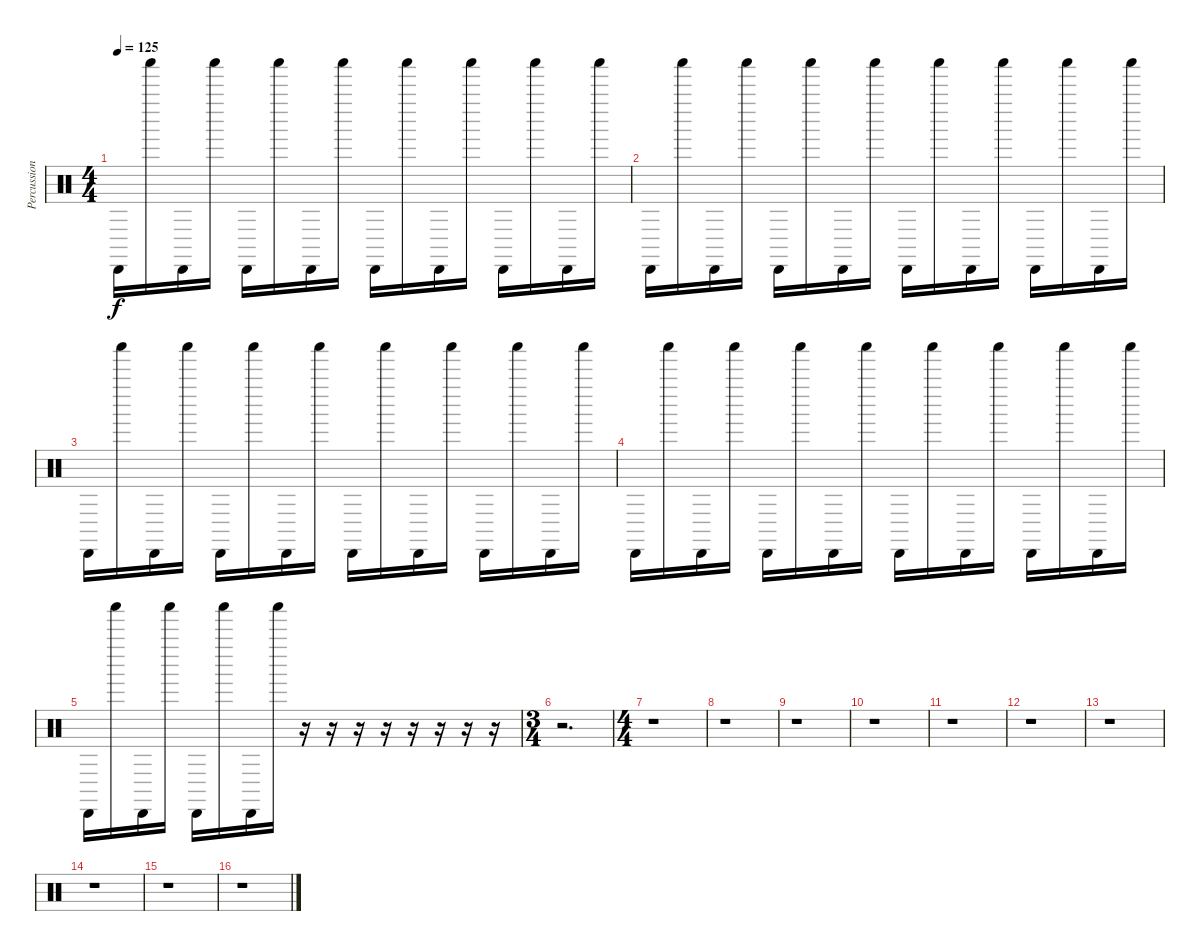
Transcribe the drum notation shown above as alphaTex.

\track ("Percussion" "Percussion") {instrument percussion}
\staff {score}
\articulation defaults
\ts (4 4)
\tempo 125
\clef neutral
\ks c "Cabasa (hit)".16{dy f} "Shaker (hit)".16 "Cabasa (hit)".16 "Shaker (hit)".16 "Cabasa (hit)".16 "Shaker (hit)".16 "Cabasa (hit)".16 "Shaker (hit)".16 "Cabasa (hit)".16 "Shaker (hit)".16 "Cabasa (hit)".16 "Shaker (hit)".16 "Cabasa (hit)".16 "Shaker (hit)".16 "Cabasa (hit)".16 "Shaker (hit)".16
|
"Cabasa (hit)".16 "Shaker (hit)".16 "Cabasa (hit)".16 "Shaker (hit)".16 "Cabasa (hit)".16 "Shaker (hit)".16 "Cabasa (hit)".16 "Shaker (hit)".16 "Cabasa (hit)".16 "Shaker (hit)".16 "Cabasa (hit)".16 "Shaker (hit)".16 "Cabasa (hit)".16 "Shaker (hit)".16 "Cabasa (hit)".16 "Shaker (hit)".16 |
"Cabasa (hit)".16 "Shaker (hit)".16 "Cabasa (hit)".16 "Shaker (hit)".16 "Cabasa (hit)".16 "Shaker (hit)".16 "Cabasa (hit)".16 "Shaker (hit)".16 "Cabasa (hit)".16 "Shaker (hit)".16 "Cabasa (hit)".16 "Shaker (hit)".16 "Cabasa (hit)".16 "Shaker (hit)".16 "Cabasa (hit)".16 "Shaker (hit)".16 |
"Cabasa (hit)".16 "Shaker (hit)".16 "Cabasa (hit)".16 "Shaker (hit)".16 "Cabasa (hit)".16 "Shaker (hit)".16 "Cabasa (hit)".16 "Shaker (hit)".16 "Cabasa (hit)".16 "Shaker (hit)".16 "Cabasa (hit)".16 "Shaker (hit)".16 "Cabasa (hit)".16 "Shaker (hit)".16 "Cabasa (hit)".16 "Shaker (hit)".16 |
"Cabasa (hit)".16 "Shaker (hit)".16 "Cabasa (hit)".16 "Shaker (hit)".16 "Cabasa (hit)".16 "Shaker (hit)".16 "Cabasa (hit)".16 "Shaker (hit)".16 r.16 r.16 r.16 r.16 r.16 r.16 r.16 r.16 |
\ts (3 4)
r.2{d} |
\ts (4 4)
r.1 |
r.1 |
r.1 |
r.1 |
r.1 |
r.1 |
r.1 |
r.1 |
r.1 |
r.1
